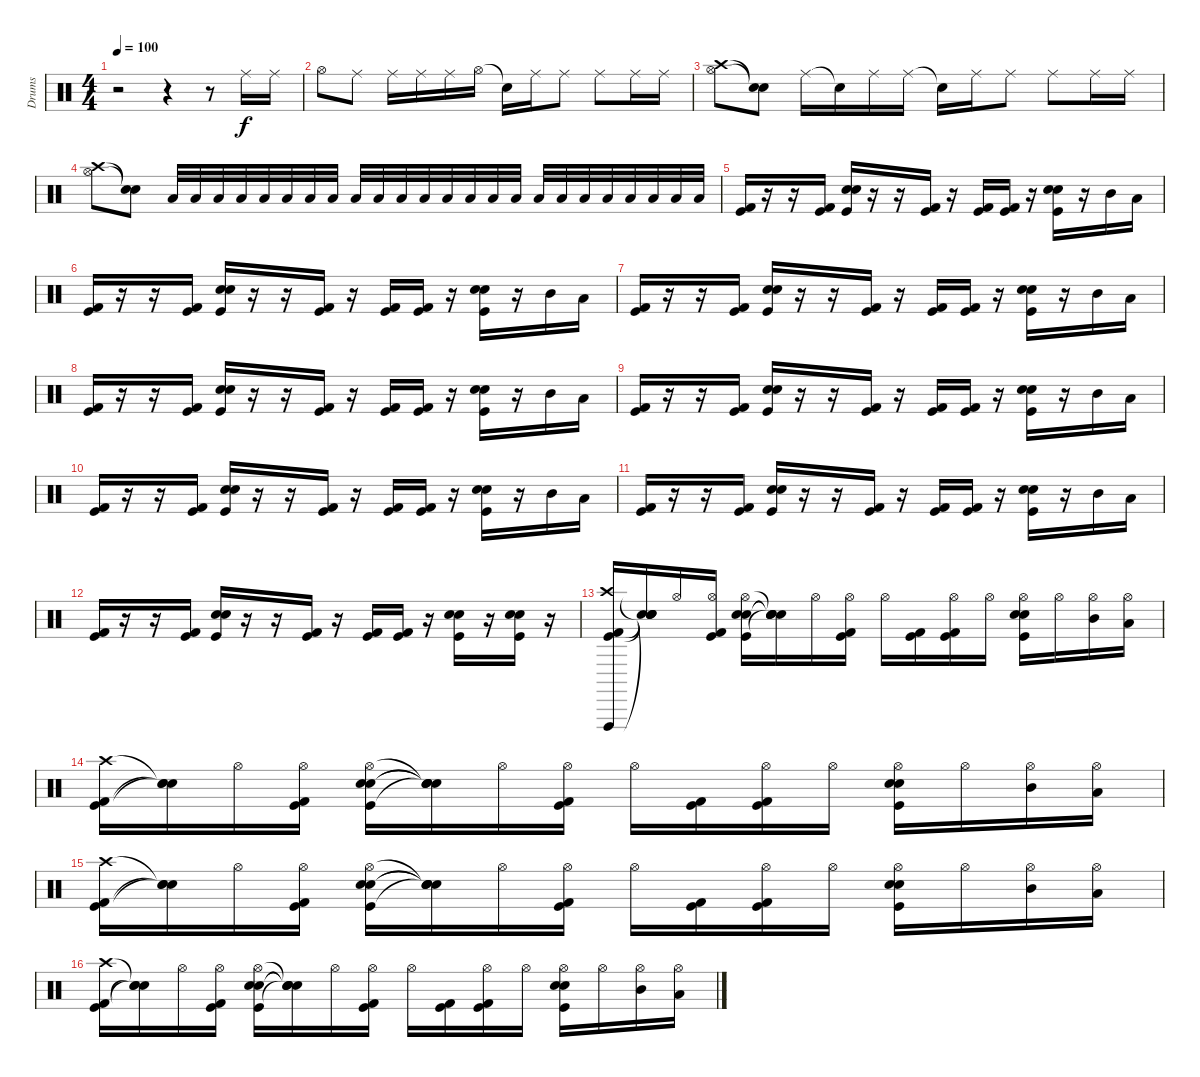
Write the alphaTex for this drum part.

\track ("Drums" "Drums") {instrument percussion}
\staff {score}
\articulation defaults
\ts (4 4)
\tempo 100
\clef neutral
\ks c
r.2{dy f} r.4 r.8 "Ride (middle)".16 "Ride (middle)".16 |
"Hi-Hat (open)".8 "Ride (middle)".8 "Ride (middle)".16 "Ride (middle)".16 "Ride (middle)".16 "Hi-Hat (open)".16 "Snare (hit)"{t}.16 "Ride (middle)".16 "Ride (middle)".8 "Ride (middle)".8 "Ride (middle)".16 "Ride (middle)".16 |
("Hi-Hat (open)" "Crash high (hit)").8 ("Snare (hit)"{t} "Snare (hit)"{t}).8 "Ride (middle)".16 "Snare (hit)"{t}.16 "Ride (middle)".16 "Ride (middle)".16 "Snare (hit)"{t}.16 "Ride (middle)".16 "Ride (middle)".8 "Ride (middle)".8 "Ride (middle)".16 "Ride (middle)".16 |
("Hi-Hat (open)" "Crash high (hit)").8 ("Snare (hit)"{t} "Snare (hit)"{t}).8 "Low Floor Tom (hit)".32 "Low Floor Tom (hit)".32 "Low Floor Tom (hit)".32 "Low Floor Tom (hit)".32 "Low Floor Tom (hit)".32 "Low Floor Tom (hit)".32 "Low Floor Tom (hit)".32 "Low Floor Tom (hit)".32 "Low Floor Tom (hit)".32 "Low Floor Tom (hit)".32 "Low Floor Tom (hit)".32 "Low Floor Tom (hit)".32 "Low Floor Tom (hit)".32 "Low Floor Tom (hit)".32 "Low Floor Tom (hit)".32 "Low Floor Tom (hit)".32 "Low Floor Tom (hit)".32 "Low Floor Tom (hit)".32 "Low Floor Tom (hit)".32 "Low Floor Tom (hit)".32 "Low Floor Tom (hit)".32 "Low Floor Tom (hit)".32 "Low Floor Tom (hit)".32 "Low Floor Tom (hit)".32 |
("Kick (hit) 2" "Kick (hit)").16 r.16 r.16 ("Kick (hit)" "Kick (hit) 2").16 ("Snare (hit) 2" "Kick (hit)" "Electric Snare (hit)").16 r.16 r.16 ("Kick (hit)" "Kick (hit) 2").16 r.16 ("Kick (hit)" "Kick (hit) 2").16 ("Kick (hit)" "Kick (hit) 2").16 r.16 ("Snare (hit) 2" "Kick (hit)" "Electric Snare (hit)").16 r.16 "Mid Tom (hit)".16 "Low Tom (hit)".16 |
("Kick (hit) 2" "Kick (hit)").16 r.16 r.16 ("Kick (hit)" "Kick (hit) 2").16 ("Snare (hit) 2" "Kick (hit)" "Electric Snare (hit)").16 r.16 r.16 ("Kick (hit)" "Kick (hit) 2").16 r.16 ("Kick (hit)" "Kick (hit) 2").16 ("Kick (hit)" "Kick (hit) 2").16 r.16 ("Snare (hit) 2" "Kick (hit)" "Electric Snare (hit)").16 r.16 "Mid Tom (hit)".16 "Low Tom (hit)".16 |
("Kick (hit) 2" "Kick (hit)").16 r.16 r.16 ("Kick (hit)" "Kick (hit) 2").16 ("Snare (hit) 2" "Kick (hit)" "Electric Snare (hit)").16 r.16 r.16 ("Kick (hit)" "Kick (hit) 2").16 r.16 ("Kick (hit)" "Kick (hit) 2").16 ("Kick (hit)" "Kick (hit) 2").16 r.16 ("Snare (hit) 2" "Kick (hit)" "Electric Snare (hit)").16 r.16 "Mid Tom (hit)".16 "Low Tom (hit)".16 |
("Kick (hit) 2" "Kick (hit)").16 r.16 r.16 ("Kick (hit)" "Kick (hit) 2").16 ("Snare (hit) 2" "Kick (hit)" "Electric Snare (hit)").16 r.16 r.16 ("Kick (hit)" "Kick (hit) 2").16 r.16 ("Kick (hit)" "Kick (hit) 2").16 ("Kick (hit)" "Kick (hit) 2").16 r.16 ("Snare (hit) 2" "Kick (hit)" "Electric Snare (hit)").16 r.16 "Mid Tom (hit)".16 "Low Tom (hit)".16 |
("Kick (hit) 2" "Kick (hit)").16 r.16 r.16 ("Kick (hit)" "Kick (hit) 2").16 ("Snare (hit) 2" "Kick (hit)" "Electric Snare (hit)").16 r.16 r.16 ("Kick (hit)" "Kick (hit) 2").16 r.16 ("Kick (hit)" "Kick (hit) 2").16 ("Kick (hit)" "Kick (hit) 2").16 r.16 ("Snare (hit) 2" "Kick (hit)" "Electric Snare (hit)").16 r.16 "Mid Tom (hit)".16 "Low Tom (hit)".16 |
("Kick (hit) 2" "Kick (hit)").16 r.16 r.16 ("Kick (hit)" "Kick (hit) 2").16 ("Snare (hit) 2" "Kick (hit)" "Electric Snare (hit)").16 r.16 r.16 ("Kick (hit)" "Kick (hit) 2").16 r.16 ("Kick (hit)" "Kick (hit) 2").16 ("Kick (hit)" "Kick (hit) 2").16 r.16 ("Snare (hit) 2" "Kick (hit)" "Electric Snare (hit)").16 r.16 "Mid Tom (hit)".16 "Low Tom (hit)".16 |
("Kick (hit) 2" "Kick (hit)").16 r.16 r.16 ("Kick (hit)" "Kick (hit) 2").16 ("Snare (hit) 2" "Kick (hit)" "Electric Snare (hit)").16 r.16 r.16 ("Kick (hit)" "Kick (hit) 2").16 r.16 ("Kick (hit)" "Kick (hit) 2").16 ("Kick (hit)" "Kick (hit) 2").16 r.16 ("Snare (hit) 2" "Kick (hit)" "Electric Snare (hit)").16 r.16 "Mid Tom (hit)".16 "Low Tom (hit)".16 |
("Kick (hit) 2" "Kick (hit)").16 r.16 r.16 ("Kick (hit)" "Kick (hit) 2").16 ("Snare (hit) 2" "Kick (hit)" "Electric Snare (hit)").16 r.16 r.16 ("Kick (hit)" "Kick (hit) 2").16 r.16 ("Kick (hit)" "Kick (hit) 2").16 ("Kick (hit)" "Kick (hit) 2").16 r.16 ("Snare (hit) 2" "Kick (hit)" "Electric Snare (hit)").16 r.16 ("Snare (hit) 2" "Kick (hit)" "Electric Snare (hit)").16 r.16 |
("Kick (hit) 2" "Kick (hit)" "Vibraslap (hit)" "Crash high (hit)").16 ("Snare (hit)"{t} "Snare (hit)"{t} "Snare (hit)"{t} "Snare (hit)"{t}).16 "Hi-Hat (open)".16 ("Kick (hit)" "Kick (hit) 2" "Hi-Hat (open)").16 ("Snare (hit) 2" "Kick (hit)" "Electric Snare (hit)" "Hi-Hat (open)").16 ("Snare (hit)"{t} "Snare (hit)"{t} "Snare (hit)"{t} "Snare (hit)"{t}).16 "Hi-Hat (open)".16 ("Kick (hit)" "Kick (hit) 2" "Hi-Hat (open)").16 "Hi-Hat (open)".16 ("Kick (hit)" "Kick (hit) 2").16 ("Kick (hit)" "Kick (hit) 2" "Hi-Hat (open)").16 "Hi-Hat (open)".16 ("Snare (hit) 2" "Kick (hit)" "Electric Snare (hit)" "Hi-Hat (open)").16 "Hi-Hat (open)".16 ("Mid Tom (hit)" "Hi-Hat (open)").16 ("Low Tom (hit)" "Hi-Hat (open)").16 |
("Kick (hit) 2" "Kick (hit)" "Crash high (hit)").16 ("Snare (hit)"{t} "Snare (hit)"{t} "Snare (hit)"{t}).16 "Hi-Hat (open)".16 ("Kick (hit)" "Kick (hit) 2" "Hi-Hat (open)").16 ("Snare (hit) 2" "Kick (hit)" "Electric Snare (hit)" "Hi-Hat (open)").16 ("Snare (hit)"{t} "Snare (hit)"{t} "Snare (hit)"{t} "Snare (hit)"{t}).16 "Hi-Hat (open)".16 ("Kick (hit)" "Kick (hit) 2" "Hi-Hat (open)").16 "Hi-Hat (open)".16 ("Kick (hit)" "Kick (hit) 2").16 ("Kick (hit)" "Kick (hit) 2" "Hi-Hat (open)").16 "Hi-Hat (open)".16 ("Snare (hit) 2" "Kick (hit)" "Electric Snare (hit)" "Hi-Hat (open)").16 "Hi-Hat (open)".16 ("Mid Tom (hit)" "Hi-Hat (open)").16 ("Low Tom (hit)" "Hi-Hat (open)").16 |
("Kick (hit) 2" "Kick (hit)" "Crash high (hit)").16 ("Snare (hit)"{t} "Snare (hit)"{t} "Snare (hit)"{t}).16 "Hi-Hat (open)".16 ("Kick (hit)" "Kick (hit) 2" "Hi-Hat (open)").16 ("Snare (hit) 2" "Kick (hit)" "Electric Snare (hit)" "Hi-Hat (open)").16 ("Snare (hit)"{t} "Snare (hit)"{t} "Snare (hit)"{t} "Snare (hit)"{t}).16 "Hi-Hat (open)".16 ("Kick (hit)" "Kick (hit) 2" "Hi-Hat (open)").16 "Hi-Hat (open)".16 ("Kick (hit)" "Kick (hit) 2").16 ("Kick (hit)" "Kick (hit) 2" "Hi-Hat (open)").16 "Hi-Hat (open)".16 ("Snare (hit) 2" "Kick (hit)" "Electric Snare (hit)" "Hi-Hat (open)").16 "Hi-Hat (open)".16 ("Mid Tom (hit)" "Hi-Hat (open)").16 ("Low Tom (hit)" "Hi-Hat (open)").16 |
("Kick (hit) 2" "Kick (hit)" "Crash high (hit)").16 ("Snare (hit)"{t} "Snare (hit)"{t} "Snare (hit)"{t}).16 "Hi-Hat (open)".16 ("Kick (hit)" "Kick (hit) 2" "Hi-Hat (open)").16 ("Snare (hit) 2" "Kick (hit)" "Electric Snare (hit)" "Hi-Hat (open)").16 ("Snare (hit)"{t} "Snare (hit)"{t} "Snare (hit)"{t} "Snare (hit)"{t}).16 "Hi-Hat (open)".16 ("Kick (hit)" "Kick (hit) 2" "Hi-Hat (open)").16 "Hi-Hat (open)".16 ("Kick (hit)" "Kick (hit) 2").16 ("Kick (hit)" "Kick (hit) 2" "Hi-Hat (open)").16 "Hi-Hat (open)".16 ("Snare (hit) 2" "Kick (hit)" "Electric Snare (hit)" "Hi-Hat (open)").16 "Hi-Hat (open)".16 ("Mid Tom (hit)" "Hi-Hat (open)").16 ("Low Tom (hit)" "Hi-Hat (open)").16
